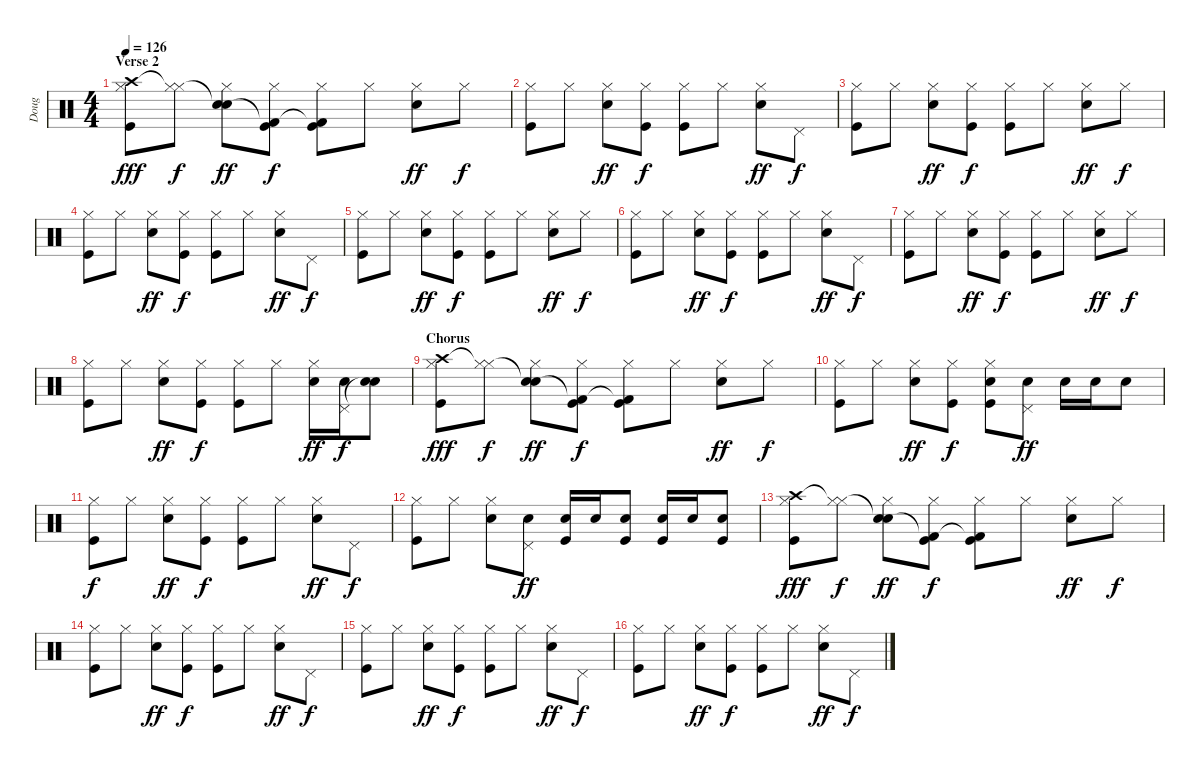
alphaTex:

\track ("Doug" "Doug") {instrument percussion}
\staff {score}
\articulation defaults
\ts (4 4)
\section ("" "Verse 2")
\tempo 126
\clef neutral
\ks c
("Crash high (hit)" "Hi-Hat (closed)" "Kick (hit)").8{dy fff} ("Hi-Hat (closed)"{t} "Hi-Hat (closed)").8{dy f} ("Snare (hit) 2"{t} "Hi-Hat (closed)" "Snare (hit) 2").8{dy ff} ("Kick (hit) 2"{t} "Hi-Hat (closed)" "Kick (hit)").8{dy f} ("Kick (hit) 2"{t} "Hi-Hat (closed)" "Kick (hit)").8 "Hi-Hat (closed)".8 ("Hi-Hat (closed)" "Snare (hit) 2").8{dy ff} "Hi-Hat (closed)".8{dy f} |
("Hi-Hat (closed)" "Kick (hit)").8 "Hi-Hat (closed)".8 ("Hi-Hat (closed)" "Snare (hit) 2").8{dy ff} ("Hi-Hat (closed)" "Kick (hit)").8{dy f} ("Hi-Hat (closed)" "Kick (hit)").8 "Hi-Hat (closed)".8 ("Hi-Hat (closed)" "Snare (hit) 2").8{dy ff} "Pedal Hi-Hat (hit)".8{dy f} |
("Hi-Hat (closed)" "Kick (hit)").8 "Hi-Hat (closed)".8 ("Hi-Hat (closed)" "Snare (hit) 2").8{dy ff} ("Hi-Hat (closed)" "Kick (hit)").8{dy f} ("Hi-Hat (closed)" "Kick (hit)").8 "Hi-Hat (closed)".8 ("Hi-Hat (closed)" "Snare (hit) 2").8{dy ff} "Hi-Hat (closed)".8{dy f} |
("Hi-Hat (closed)" "Kick (hit)").8 "Hi-Hat (closed)".8 ("Hi-Hat (closed)" "Snare (hit) 2").8{dy ff} ("Hi-Hat (closed)" "Kick (hit)").8{dy f} ("Hi-Hat (closed)" "Kick (hit)").8 "Hi-Hat (closed)".8 ("Hi-Hat (closed)" "Snare (hit) 2").8{dy ff} "Pedal Hi-Hat (hit)".8{dy f} |
("Hi-Hat (closed)" "Kick (hit)").8 "Hi-Hat (closed)".8 ("Hi-Hat (closed)" "Snare (hit) 2").8{dy ff} ("Hi-Hat (closed)" "Kick (hit)").8{dy f} ("Hi-Hat (closed)" "Kick (hit)").8 "Hi-Hat (closed)".8 ("Hi-Hat (closed)" "Snare (hit) 2").8{dy ff} "Hi-Hat (closed)".8{dy f} |
("Hi-Hat (closed)" "Kick (hit)").8 "Hi-Hat (closed)".8 ("Hi-Hat (closed)" "Snare (hit) 2").8{dy ff} ("Hi-Hat (closed)" "Kick (hit)").8{dy f} ("Hi-Hat (closed)" "Kick (hit)").8 "Hi-Hat (closed)".8 ("Hi-Hat (closed)" "Snare (hit) 2").8{dy ff} "Pedal Hi-Hat (hit)".8{dy f} |
("Hi-Hat (closed)" "Kick (hit)").8 "Hi-Hat (closed)".8 ("Hi-Hat (closed)" "Snare (hit) 2").8{dy ff} ("Hi-Hat (closed)" "Kick (hit)").8{dy f} ("Hi-Hat (closed)" "Kick (hit)").8 "Hi-Hat (closed)".8 ("Hi-Hat (closed)" "Snare (hit) 2").8{dy ff} "Hi-Hat (closed)".8{dy f} |
("Hi-Hat (closed)" "Kick (hit)").8 "Hi-Hat (closed)".8 ("Hi-Hat (closed)" "Snare (hit) 2").8{dy ff} ("Hi-Hat (closed)" "Kick (hit)").8{dy f} ("Hi-Hat (closed)" "Kick (hit)").8 "Hi-Hat (closed)".8 ("Hi-Hat (closed)" "Snare (hit) 2").16{dy ff} ("Pedal Hi-Hat (hit)" "Snare (hit) 2").16{dy f} ("Snare (hit)"{t} "Snare (hit) 2").8 |
\section ("" "Chorus")
("Crash high (hit)" "Hi-Hat (closed)" "Kick (hit)").8{dy fff} ("Hi-Hat (closed)"{t} "Hi-Hat (closed)").8{dy f} ("Snare (hit) 2"{t} "Hi-Hat (closed)" "Snare (hit) 2").8{dy ff} ("Kick (hit) 2"{t} "Hi-Hat (closed)" "Kick (hit)").8{dy f} ("Kick (hit) 2"{t} "Hi-Hat (closed)" "Kick (hit)").8 "Hi-Hat (closed)".8 ("Hi-Hat (closed)" "Snare (hit) 2").8{dy ff} "Hi-Hat (closed)".8{dy f} |
("Hi-Hat (closed)" "Kick (hit)").8 "Hi-Hat (closed)".8 ("Hi-Hat (closed)" "Snare (hit) 2").8{dy ff} ("Hi-Hat (closed)" "Kick (hit)").8{dy f} ("Hi-Hat (closed)" "Snare (hit) 2" "Kick (hit)").8 ("Pedal Hi-Hat (hit)" "Snare (hit) 2").8{dy ff} "Snare (hit) 2".16 "Snare (hit) 2".16 "Snare (hit) 2".8 |
("Hi-Hat (closed)" "Kick (hit)").8{dy f} "Hi-Hat (closed)".8 ("Hi-Hat (closed)" "Snare (hit) 2").8{dy ff} ("Hi-Hat (closed)" "Kick (hit)").8{dy f} ("Hi-Hat (closed)" "Kick (hit)").8 "Hi-Hat (closed)".8 ("Hi-Hat (closed)" "Snare (hit) 2").8{dy ff} "Pedal Hi-Hat (hit)".8{dy f} |
("Hi-Hat (closed)" "Kick (hit)").8 "Hi-Hat (closed)".8 ("Hi-Hat (closed)" "Snare (hit) 2").8 ("Pedal Hi-Hat (hit)" "Snare (hit) 2").8{dy ff} ("Snare (hit) 2" "Kick (hit)").16 "Snare (hit) 2".16 ("Snare (hit) 2" "Kick (hit)").8 ("Snare (hit) 2" "Kick (hit)").16 "Snare (hit) 2".16 ("Snare (hit) 2" "Kick (hit)").8 |
("Crash high (hit)" "Hi-Hat (closed)" "Kick (hit)").8{dy fff} ("Hi-Hat (closed)"{t} "Hi-Hat (closed)").8{dy f} ("Snare (hit) 2"{t} "Hi-Hat (closed)" "Snare (hit) 2").8{dy ff} ("Kick (hit) 2"{t} "Hi-Hat (closed)" "Kick (hit)").8{dy f} ("Kick (hit) 2"{t} "Hi-Hat (closed)" "Kick (hit)").8 "Hi-Hat (closed)".8 ("Hi-Hat (closed)" "Snare (hit) 2").8{dy ff} "Hi-Hat (closed)".8{dy f} |
("Hi-Hat (closed)" "Kick (hit)").8 "Hi-Hat (closed)".8 ("Hi-Hat (closed)" "Snare (hit) 2").8{dy ff} ("Hi-Hat (closed)" "Kick (hit)").8{dy f} ("Hi-Hat (closed)" "Kick (hit)").8 "Hi-Hat (closed)".8 ("Hi-Hat (closed)" "Snare (hit) 2").8{dy ff} "Pedal Hi-Hat (hit)".8{dy f} |
("Hi-Hat (closed)" "Kick (hit)").8 "Hi-Hat (closed)".8 ("Hi-Hat (closed)" "Snare (hit) 2").8{dy ff} ("Hi-Hat (closed)" "Kick (hit)").8{dy f} ("Hi-Hat (closed)" "Kick (hit)").8 "Hi-Hat (closed)".8 ("Hi-Hat (closed)" "Snare (hit) 2").8{dy ff} "Pedal Hi-Hat (hit)".8{dy f} |
("Hi-Hat (closed)" "Kick (hit)").8 "Hi-Hat (closed)".8 ("Hi-Hat (closed)" "Snare (hit) 2").8{dy ff} ("Hi-Hat (closed)" "Kick (hit)").8{dy f} ("Hi-Hat (closed)" "Kick (hit)").8 "Hi-Hat (closed)".8 ("Hi-Hat (closed)" "Snare (hit) 2").8{dy ff} "Pedal Hi-Hat (hit)".8{dy f}
